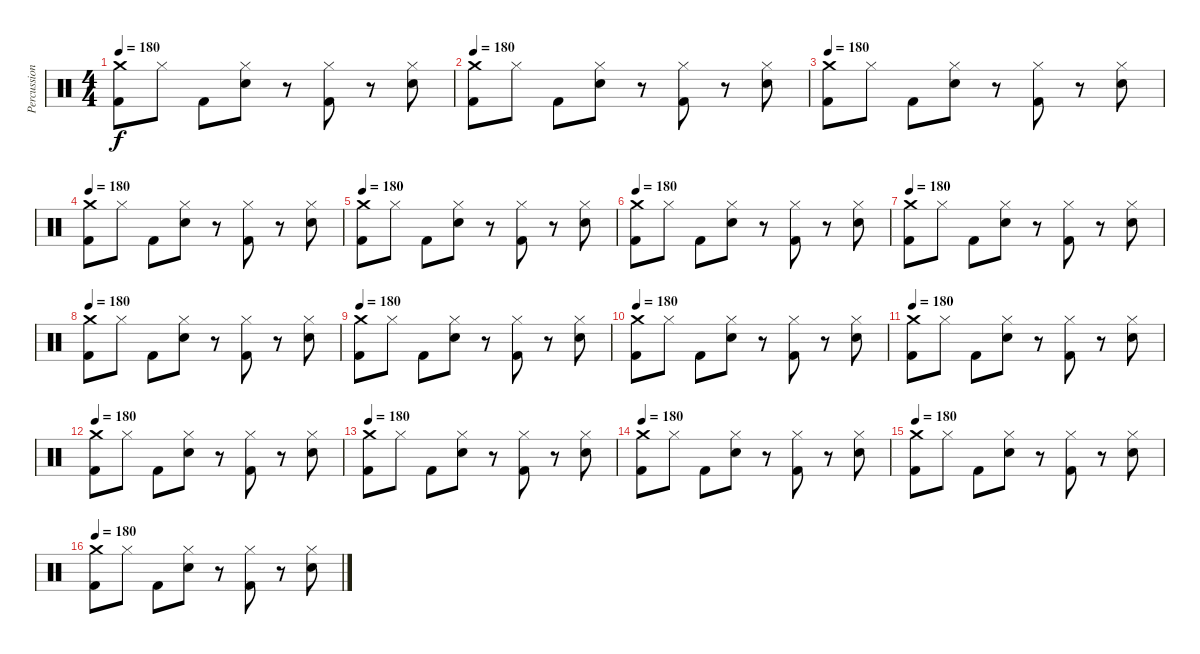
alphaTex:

\track ("Percussion" "Percussion") {instrument percussion}
\staff {score}
\articulation defaults
\ts (4 4)
\tempo 180
\clef neutral
\ks c
("Crash medium (hit)" "Kick (hit) 2").8{dy f} "Hi-Hat (closed)".8 "Kick (hit) 2".8 ("Hi-Hat (closed)" "Snare (hit) 2").8 r.8 ("Hi-Hat (closed)" "Kick (hit) 2").8 r.8 ("Hi-Hat (closed)" "Snare (hit) 2").8 |
\tempo 180
("Crash medium (hit)" "Kick (hit) 2").8 "Hi-Hat (closed)".8 "Kick (hit) 2".8 ("Hi-Hat (closed)" "Snare (hit) 2").8 r.8 ("Hi-Hat (closed)" "Kick (hit) 2").8 r.8 ("Hi-Hat (closed)" "Snare (hit) 2").8 |
\tempo 180
("Crash medium (hit)" "Kick (hit) 2").8 "Hi-Hat (closed)".8 "Kick (hit) 2".8 ("Hi-Hat (closed)" "Snare (hit) 2").8 r.8 ("Hi-Hat (closed)" "Kick (hit) 2").8 r.8 ("Hi-Hat (closed)" "Snare (hit) 2").8 |
\tempo 180
("Crash medium (hit)" "Kick (hit) 2").8 "Hi-Hat (closed)".8 "Kick (hit) 2".8 ("Hi-Hat (closed)" "Snare (hit) 2").8 r.8 ("Hi-Hat (closed)" "Kick (hit) 2").8 r.8 ("Hi-Hat (closed)" "Snare (hit) 2").8 |
\tempo 180
("Crash medium (hit)" "Kick (hit) 2").8 "Hi-Hat (closed)".8 "Kick (hit) 2".8 ("Hi-Hat (closed)" "Snare (hit) 2").8 r.8 ("Hi-Hat (closed)" "Kick (hit) 2").8 r.8 ("Hi-Hat (closed)" "Snare (hit) 2").8 |
\tempo 180
("Crash medium (hit)" "Kick (hit) 2").8 "Hi-Hat (closed)".8 "Kick (hit) 2".8 ("Hi-Hat (closed)" "Snare (hit) 2").8 r.8 ("Hi-Hat (closed)" "Kick (hit) 2").8 r.8 ("Hi-Hat (closed)" "Snare (hit) 2").8 |
\tempo 180
("Crash medium (hit)" "Kick (hit) 2").8 "Hi-Hat (closed)".8 "Kick (hit) 2".8 ("Hi-Hat (closed)" "Snare (hit) 2").8 r.8 ("Hi-Hat (closed)" "Kick (hit) 2").8 r.8 ("Hi-Hat (closed)" "Snare (hit) 2").8 |
\tempo 180
("Crash medium (hit)" "Kick (hit) 2").8 "Hi-Hat (closed)".8 "Kick (hit) 2".8 ("Hi-Hat (closed)" "Snare (hit) 2").8 r.8 ("Hi-Hat (closed)" "Kick (hit) 2").8 r.8 ("Hi-Hat (closed)" "Snare (hit) 2").8 |
\tempo 180
("Crash medium (hit)" "Kick (hit) 2").8 "Hi-Hat (closed)".8 "Kick (hit) 2".8 ("Hi-Hat (closed)" "Snare (hit) 2").8 r.8 ("Hi-Hat (closed)" "Kick (hit) 2").8 r.8 ("Hi-Hat (closed)" "Snare (hit) 2").8 |
\tempo 180
("Crash medium (hit)" "Kick (hit) 2").8 "Hi-Hat (closed)".8 "Kick (hit) 2".8 ("Hi-Hat (closed)" "Snare (hit) 2").8 r.8 ("Hi-Hat (closed)" "Kick (hit) 2").8 r.8 ("Hi-Hat (closed)" "Snare (hit) 2").8 |
\tempo 180
("Crash medium (hit)" "Kick (hit) 2").8 "Hi-Hat (closed)".8 "Kick (hit) 2".8 ("Hi-Hat (closed)" "Snare (hit) 2").8 r.8 ("Hi-Hat (closed)" "Kick (hit) 2").8 r.8 ("Hi-Hat (closed)" "Snare (hit) 2").8 |
\tempo 180
("Crash medium (hit)" "Kick (hit) 2").8 "Hi-Hat (closed)".8 "Kick (hit) 2".8 ("Hi-Hat (closed)" "Snare (hit) 2").8 r.8 ("Hi-Hat (closed)" "Kick (hit) 2").8 r.8 ("Hi-Hat (closed)" "Snare (hit) 2").8 |
\tempo 180
("Crash medium (hit)" "Kick (hit) 2").8 "Hi-Hat (closed)".8 "Kick (hit) 2".8 ("Hi-Hat (closed)" "Snare (hit) 2").8 r.8 ("Hi-Hat (closed)" "Kick (hit) 2").8 r.8 ("Hi-Hat (closed)" "Snare (hit) 2").8 |
\tempo 180
("Crash medium (hit)" "Kick (hit) 2").8 "Hi-Hat (closed)".8 "Kick (hit) 2".8 ("Hi-Hat (closed)" "Snare (hit) 2").8 r.8 ("Hi-Hat (closed)" "Kick (hit) 2").8 r.8 ("Hi-Hat (closed)" "Snare (hit) 2").8 |
\tempo 180
("Crash medium (hit)" "Kick (hit) 2").8 "Hi-Hat (closed)".8 "Kick (hit) 2".8 ("Hi-Hat (closed)" "Snare (hit) 2").8 r.8 ("Hi-Hat (closed)" "Kick (hit) 2").8 r.8 ("Hi-Hat (closed)" "Snare (hit) 2").8 |
\tempo 180
("Crash medium (hit)" "Kick (hit) 2").8 "Hi-Hat (closed)".8 "Kick (hit) 2".8 ("Hi-Hat (closed)" "Snare (hit) 2").8 r.8 ("Hi-Hat (closed)" "Kick (hit) 2").8 r.8 ("Hi-Hat (closed)" "Snare (hit) 2").8
